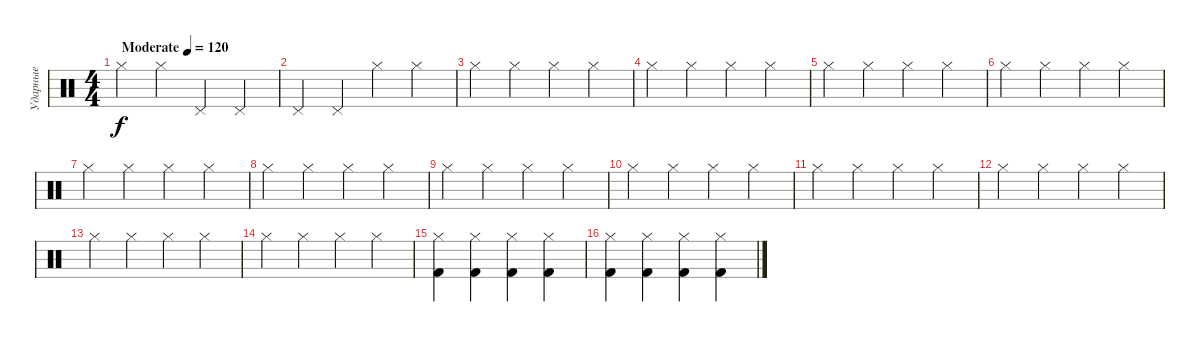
\track ("Ударные" "Ударные") {instrument percussion}
\staff {score}
\articulation defaults
\ts (4 4)
\tempo (120 "Moderate")
\clef neutral
\ks c "Hi-Hat (closed)".4{dy f} "Hi-Hat (closed)".4 "Pedal Hi-Hat (hit)".4 "Pedal Hi-Hat (hit)".4
|
"Pedal Hi-Hat (hit)".4 "Pedal Hi-Hat (hit)".4 "Hi-Hat (closed)".4 "Hi-Hat (closed)".4 |
"Hi-Hat (closed)".4 "Hi-Hat (closed)".4 "Hi-Hat (closed)".4 "Hi-Hat (closed)".4 |
"Hi-Hat (closed)".4 "Hi-Hat (closed)".4 "Hi-Hat (closed)".4 "Hi-Hat (closed)".4 |
"Hi-Hat (closed)".4 "Hi-Hat (closed)".4 "Hi-Hat (closed)".4 "Hi-Hat (closed)".4 |
"Hi-Hat (closed)".4 "Hi-Hat (closed)".4 "Hi-Hat (closed)".4 "Hi-Hat (closed)".4 |
"Hi-Hat (closed)".4 "Hi-Hat (closed)".4 "Hi-Hat (closed)".4 "Hi-Hat (closed)".4 |
"Hi-Hat (closed)".4 "Hi-Hat (closed)".4 "Hi-Hat (closed)".4 "Hi-Hat (closed)".4 |
"Hi-Hat (closed)".4 "Hi-Hat (closed)".4 "Hi-Hat (closed)".4 "Hi-Hat (closed)".4 |
"Hi-Hat (closed)".4 "Hi-Hat (closed)".4 "Hi-Hat (closed)".4 "Hi-Hat (closed)".4 |
"Hi-Hat (closed)".4 "Hi-Hat (closed)".4 "Hi-Hat (closed)".4 "Hi-Hat (closed)".4 |
"Hi-Hat (closed)".4 "Hi-Hat (closed)".4 "Hi-Hat (closed)".4 "Hi-Hat (closed)".4 |
"Hi-Hat (closed)".4 "Hi-Hat (closed)".4 "Hi-Hat (closed)".4 "Hi-Hat (closed)".4 |
"Hi-Hat (closed)".4 "Hi-Hat (closed)".4 "Hi-Hat (closed)".4 "Hi-Hat (closed)".4 |
("Hi-Hat (closed)" "Kick (hit) 2").4 ("Hi-Hat (closed)" "Kick (hit) 2").4 ("Hi-Hat (closed)" "Kick (hit) 2").4 ("Hi-Hat (closed)" "Kick (hit) 2").4 |
("Hi-Hat (closed)" "Kick (hit) 2").4 ("Hi-Hat (closed)" "Kick (hit) 2").4 ("Hi-Hat (closed)" "Kick (hit) 2").4 ("Hi-Hat (closed)" "Kick (hit) 2").4
